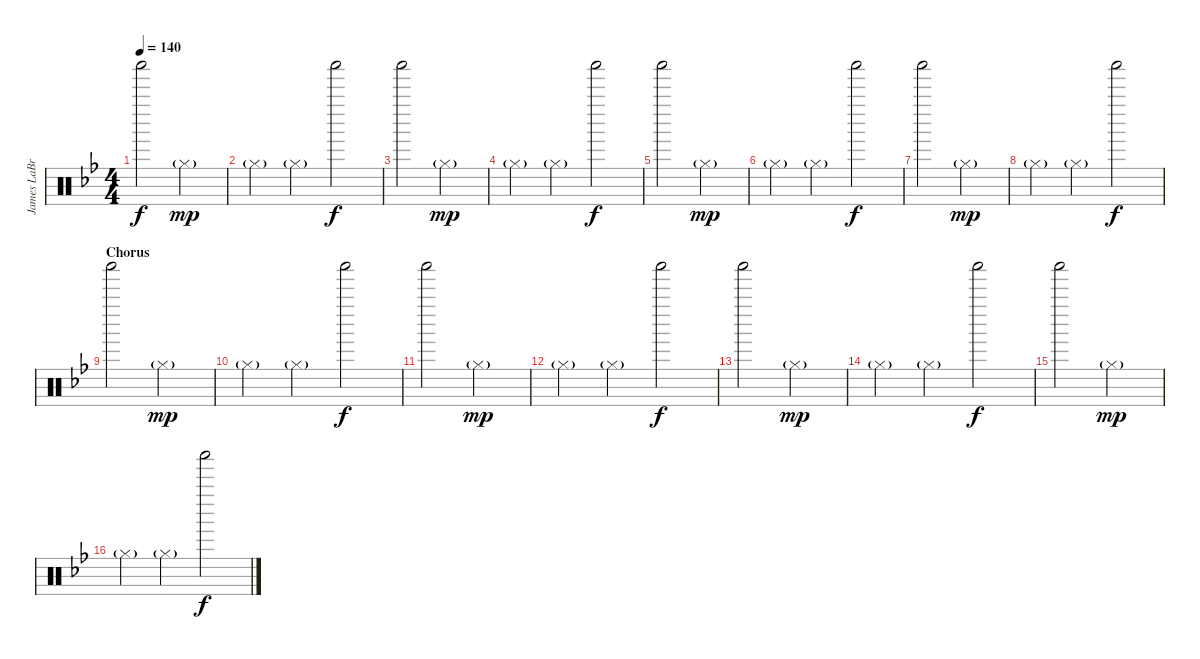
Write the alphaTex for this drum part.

\track ("James LaBrie Percussion" "James LaBr") {instrument percussion}
\staff {score}
\articulation defaults
\ts (4 4)
\section ("" "")
\tempo 140
\clef neutral
\ks bb "Shaker (hit)".2{dy f} "Hi-Hat (closed)"{g}.2{dy mp}
|
"Hi-Hat (closed)"{g}.4 "Hi-Hat (closed)"{g}.4 "Shaker (hit)".2{dy f} |
"Shaker (hit)".2 "Hi-Hat (closed)"{g}.2{dy mp} |
"Hi-Hat (closed)"{g}.4 "Hi-Hat (closed)"{g}.4 "Shaker (hit)".2{dy f} |
"Shaker (hit)".2 "Hi-Hat (closed)"{g}.2{dy mp} |
"Hi-Hat (closed)"{g}.4 "Hi-Hat (closed)"{g}.4 "Shaker (hit)".2{dy f} |
"Shaker (hit)".2 "Hi-Hat (closed)"{g}.2{dy mp} |
"Hi-Hat (closed)"{g}.4 "Hi-Hat (closed)"{g}.4 "Shaker (hit)".2{dy f} |
\section ("" "Chorus")
"Shaker (hit)".2 "Hi-Hat (closed)"{g}.2{dy mp} |
"Hi-Hat (closed)"{g}.4 "Hi-Hat (closed)"{g}.4 "Shaker (hit)".2{dy f} |
"Shaker (hit)".2 "Hi-Hat (closed)"{g}.2{dy mp} |
"Hi-Hat (closed)"{g}.4 "Hi-Hat (closed)"{g}.4 "Shaker (hit)".2{dy f} |
"Shaker (hit)".2 "Hi-Hat (closed)"{g}.2{dy mp} |
"Hi-Hat (closed)"{g}.4 "Hi-Hat (closed)"{g}.4 "Shaker (hit)".2{dy f} |
"Shaker (hit)".2 "Hi-Hat (closed)"{g}.2{dy mp} |
"Hi-Hat (closed)"{g}.4 "Hi-Hat (closed)"{g}.4 "Shaker (hit)".2{dy f}
